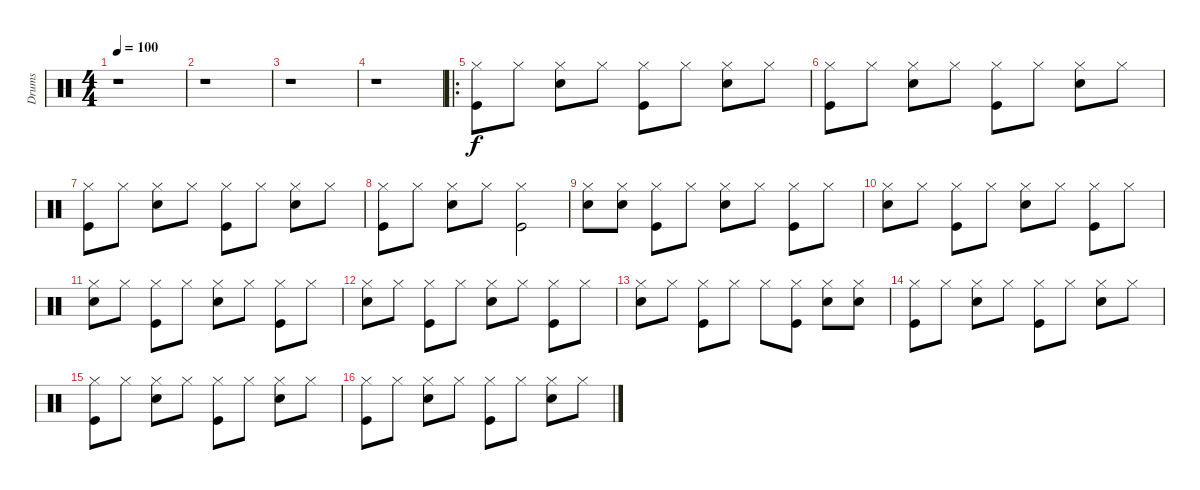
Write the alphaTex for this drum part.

\track ("Drums" "Drums") {instrument percussion}
\staff {score}
\articulation defaults
\ts (4 4)
\tempo 100
\clef neutral
\ks c
r.1{dy f} |
r.1 |
r.1 |
r.1 |
\ro
("Hi-Hat (closed)" "Kick (hit)").8 "Hi-Hat (closed)".8 ("Hi-Hat (closed)" "Snare (hit) 2").8 "Hi-Hat (closed)".8 ("Hi-Hat (closed)" "Kick (hit)").8 "Hi-Hat (closed)".8 ("Hi-Hat (closed)" "Snare (hit) 2").8 "Hi-Hat (closed)".8 |
("Hi-Hat (closed)" "Kick (hit)").8 "Hi-Hat (closed)".8 ("Hi-Hat (closed)" "Snare (hit) 2").8 "Hi-Hat (closed)".8 ("Hi-Hat (closed)" "Kick (hit)").8 "Hi-Hat (closed)".8 ("Hi-Hat (closed)" "Snare (hit) 2").8 "Hi-Hat (closed)".8 |
("Hi-Hat (closed)" "Kick (hit)").8 "Hi-Hat (closed)".8 ("Hi-Hat (closed)" "Snare (hit) 2").8 "Hi-Hat (closed)".8 ("Hi-Hat (closed)" "Kick (hit)").8 "Hi-Hat (closed)".8 ("Hi-Hat (closed)" "Snare (hit) 2").8 "Hi-Hat (closed)".8 |
("Hi-Hat (closed)" "Kick (hit)").8 "Hi-Hat (closed)".8 ("Hi-Hat (closed)" "Snare (hit) 2").8 "Hi-Hat (closed)".8 ("Hi-Hat (closed)" "Kick (hit)").2 |
("Hi-Hat (closed)" "Snare (hit) 2").8 ("Hi-Hat (closed)" "Snare (hit) 2").8 ("Hi-Hat (closed)" "Kick (hit)").8 "Hi-Hat (closed)".8 ("Hi-Hat (closed)" "Snare (hit) 2").8 "Hi-Hat (closed)".8 ("Hi-Hat (closed)" "Kick (hit)").8 "Hi-Hat (closed)".8 |
("Hi-Hat (closed)" "Snare (hit) 2").8 "Hi-Hat (closed)".8 ("Hi-Hat (closed)" "Kick (hit)").8 "Hi-Hat (closed)".8 ("Hi-Hat (closed)" "Snare (hit) 2").8 "Hi-Hat (closed)".8 ("Hi-Hat (closed)" "Kick (hit)").8 "Hi-Hat (closed)".8 |
("Hi-Hat (closed)" "Snare (hit) 2").8 "Hi-Hat (closed)".8 ("Hi-Hat (closed)" "Kick (hit)").8 "Hi-Hat (closed)".8 ("Hi-Hat (closed)" "Snare (hit) 2").8 "Hi-Hat (closed)".8 ("Hi-Hat (closed)" "Kick (hit)").8 "Hi-Hat (closed)".8 |
("Hi-Hat (closed)" "Snare (hit) 2").8 "Hi-Hat (closed)".8 ("Hi-Hat (closed)" "Kick (hit)").8 "Hi-Hat (closed)".8 ("Hi-Hat (closed)" "Snare (hit) 2").8 "Hi-Hat (closed)".8 ("Hi-Hat (closed)" "Kick (hit)").8 "Hi-Hat (closed)".8 |
("Hi-Hat (closed)" "Snare (hit) 2").8 "Hi-Hat (closed)".8 ("Hi-Hat (closed)" "Kick (hit)").8 "Hi-Hat (closed)".8 "Hi-Hat (closed)".8 ("Hi-Hat (closed)" "Kick (hit)").8 ("Hi-Hat (closed)" "Snare (hit) 2").8 ("Hi-Hat (closed)" "Snare (hit) 2").8 |
("Hi-Hat (closed)" "Kick (hit)").8 "Hi-Hat (closed)".8 ("Hi-Hat (closed)" "Snare (hit) 2").8 "Hi-Hat (closed)".8 ("Hi-Hat (closed)" "Kick (hit)").8 "Hi-Hat (closed)".8 ("Hi-Hat (closed)" "Snare (hit) 2").8 "Hi-Hat (closed)".8 |
("Hi-Hat (closed)" "Kick (hit)").8 "Hi-Hat (closed)".8 ("Hi-Hat (closed)" "Snare (hit) 2").8 "Hi-Hat (closed)".8 ("Hi-Hat (closed)" "Kick (hit)").8 "Hi-Hat (closed)".8 ("Hi-Hat (closed)" "Snare (hit) 2").8 "Hi-Hat (closed)".8 |
("Hi-Hat (closed)" "Kick (hit)").8 "Hi-Hat (closed)".8 ("Hi-Hat (closed)" "Snare (hit) 2").8 "Hi-Hat (closed)".8 ("Hi-Hat (closed)" "Kick (hit)").8 "Hi-Hat (closed)".8 ("Hi-Hat (closed)" "Snare (hit) 2").8 "Hi-Hat (closed)".8
